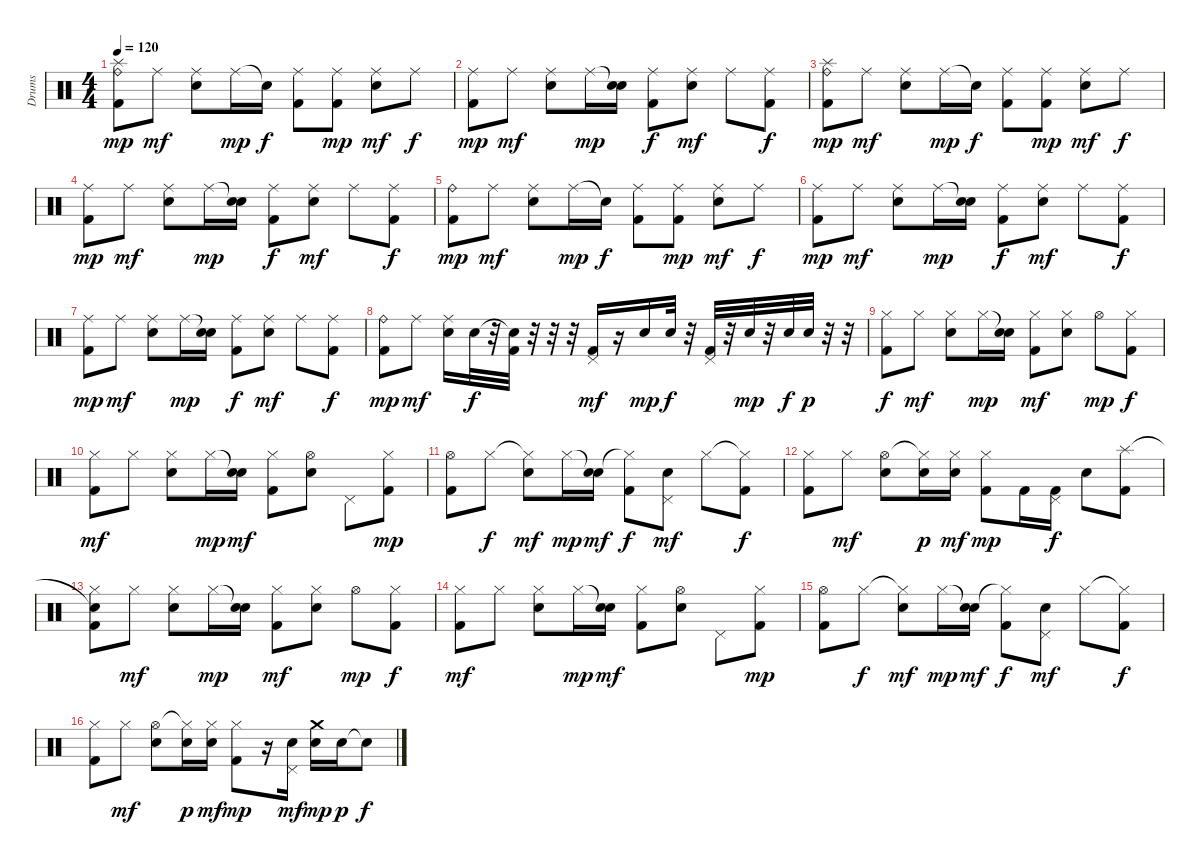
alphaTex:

\track ("Drums" "Drums") {instrument percussion}
\staff {score}
\articulation defaults
\ts (4 4)
\tempo 120
\clef neutral
\ks c
("Splash (hit)" "Ride (bell)" "Kick (hit) 2").8{dy mp} "Ride (middle)".8{dy mf} ("Ride (middle)" "Snare (hit) 2").8 "Ride (middle)".16{dy mp} "Snare (hit)"{t}.16{dy f} ("Ride (middle)" "Kick (hit) 2").8 ("Ride (middle)" "Kick (hit) 2").8{dy mp} ("Ride (middle)" "Snare (hit) 2").8{dy mf} "Ride (middle)".8{dy f} |
("Ride (middle)" "Kick (hit) 2").8{dy mp} "Ride (middle)".8{dy mf} ("Ride (middle)" "Snare (hit) 2").8 "Ride (middle)".16{dy mp} ("Snare (hit)"{t} "Snare (hit) 2").16 ("Ride (middle)" "Kick (hit) 2").8{dy f} ("Ride (middle)" "Snare (hit) 2").8{dy mf} "Ride (middle)".8 ("Ride (middle)" "Kick (hit) 2").8{dy f} |
("Splash (hit)" "Ride (bell)" "Kick (hit) 2").8{dy mp} "Ride (middle)".8{dy mf} ("Ride (middle)" "Snare (hit) 2").8 "Ride (middle)".16{dy mp} "Snare (hit)"{t}.16{dy f} ("Ride (middle)" "Kick (hit) 2").8 ("Ride (middle)" "Kick (hit) 2").8{dy mp} ("Ride (middle)" "Snare (hit) 2").8{dy mf} "Ride (middle)".8{dy f} |
("Ride (middle)" "Kick (hit) 2").8{dy mp} "Ride (middle)".8{dy mf} ("Ride (middle)" "Snare (hit) 2").8 "Ride (middle)".16{dy mp} ("Snare (hit)"{t} "Snare (hit) 2").16 ("Ride (middle)" "Kick (hit) 2").8{dy f} ("Ride (middle)" "Snare (hit) 2").8{dy mf} "Ride (middle)".8 ("Ride (middle)" "Kick (hit) 2").8{dy f} |
("Ride (bell)" "Kick (hit) 2").8{dy mp} "Ride (middle)".8{dy mf} ("Ride (middle)" "Snare (hit) 2").8 "Ride (middle)".16{dy mp} "Snare (hit)"{t}.16{dy f} ("Ride (middle)" "Kick (hit) 2").8 ("Ride (middle)" "Kick (hit) 2").8{dy mp} ("Ride (middle)" "Snare (hit) 2").8{dy mf} "Ride (middle)".8{dy f} |
("Ride (middle)" "Kick (hit) 2").8{dy mp} "Ride (middle)".8{dy mf} ("Ride (middle)" "Snare (hit) 2").8 "Ride (middle)".16{dy mp} ("Snare (hit)"{t} "Snare (hit) 2").16 ("Ride (middle)" "Kick (hit) 2").8{dy f} ("Ride (middle)" "Snare (hit) 2").8{dy mf} "Ride (middle)".8 ("Ride (middle)" "Kick (hit) 2").8{dy f} |
("Ride (middle)" "Kick (hit) 2").8{dy mp} "Ride (middle)".8{dy mf} ("Ride (middle)" "Snare (hit) 2").8 "Ride (middle)".16{dy mp} ("Snare (hit)"{t} "Snare (hit) 2").16 ("Ride (middle)" "Kick (hit) 2").8{dy f} ("Ride (middle)" "Snare (hit) 2").8{dy mf} "Ride (middle)".8 ("Ride (middle)" "Kick (hit) 2").8{dy f} |
("Ride (bell)" "Kick (hit) 2").8{dy mp} "Ride (middle)".8{dy mf} ("Ride (middle)" "Snare (hit) 2").16 "Snare (hit) 2".32{dy f} r.32 ("Snare (hit)"{t} "Kick (hit) 2").32 r.32 r.32 r.32 ("Pedal Hi-Hat (hit)" "Kick (hit) 2").16{dy mf} r.16 "Snare (hit) 2".16{dy mp} "Snare (hit) 2".32{dy f} r.32 ("Pedal Hi-Hat (hit)" "Kick (hit) 2").32 r.32 "Snare (hit) 2".32{dy mp} r.32 "Snare (hit) 2".32{dy f} "Snare (hit) 2".32{dy p} r.32 r.32 |
("Hi-Hat (closed)" "Kick (hit) 2").8{dy f} "Hi-Hat (closed)".8{dy mf} ("Hi-Hat (closed)" "Snare (hit) 2").8 "Hi-Hat (closed)".16{dy mp} ("Snare (hit)"{t} "Snare (hit) 2").16 ("Hi-Hat (closed)" "Kick (hit) 2").8{dy mf} ("Hi-Hat (closed)" "Snare (hit) 2").8 "Hi-Hat (open)".8{dy mp} ("Hi-Hat (closed)" "Kick (hit) 2").8{dy f} |
("Hi-Hat (closed)" "Kick (hit) 2").8{dy mf} "Hi-Hat (closed)".8 ("Hi-Hat (closed)" "Snare (hit) 2").8 "Hi-Hat (closed)".16{dy mp} ("Snare (hit)"{t} "Snare (hit) 2").16{dy mf} ("Hi-Hat (closed)" "Kick (hit) 2").8 ("Hi-Hat (open)" "Snare (hit) 2").8 "Pedal Hi-Hat (hit)".8 ("Hi-Hat (closed)" "Kick (hit) 2").8{dy mp} |
("Hi-Hat (open)" "Kick (hit) 2").8 "Hi-Hat (closed)".8{dy f} ("Hi-Hat (closed)"{t} "Snare (hit) 2").8{dy mf} "Hi-Hat (closed)".16{dy mp} ("Snare (hit)"{t} "Snare (hit) 2").16{dy mf} ("Hi-Hat (closed)"{t} "Kick (hit) 2").8{dy f} ("Pedal Hi-Hat (hit)" "Snare (hit) 2").8{dy mf} "Hi-Hat (closed)".8 ("Hi-Hat (closed)"{t} "Kick (hit) 2").8{dy f} |
("Hi-Hat (closed)" "Kick (hit) 2").8 "Hi-Hat (closed)".8{dy mf} ("Hi-Hat (open)" "Snare (hit) 2").8 ("Hi-Hat (closed)"{t} "Snare (hit) 2").16{dy p} ("Hi-Hat (closed)" "Snare (hit) 2").16{dy mf} ("Hi-Hat (closed)" "Kick (hit) 2").8{dy mp} "Kick (hit) 2".16 ("Pedal Hi-Hat (hit)" "Kick (hit) 2").16{dy f} "Snare (hit) 2".8 ("Splash (hit)" "Kick (hit) 2").8 |
("Snare (hit)"{t} "Hi-Hat (closed)" "Kick (hit) 2").8 "Hi-Hat (closed)".8{dy mf} ("Hi-Hat (closed)" "Snare (hit) 2").8 "Hi-Hat (closed)".16{dy mp} ("Snare (hit)"{t} "Snare (hit) 2").16 ("Hi-Hat (closed)" "Kick (hit) 2").8{dy mf} ("Hi-Hat (closed)" "Snare (hit) 2").8 "Hi-Hat (open)".8{dy mp} ("Hi-Hat (closed)" "Kick (hit) 2").8{dy f} |
("Hi-Hat (closed)" "Kick (hit) 2").8{dy mf} "Hi-Hat (closed)".8 ("Hi-Hat (closed)" "Snare (hit) 2").8 "Hi-Hat (closed)".16{dy mp} ("Snare (hit)"{t} "Snare (hit) 2").16{dy mf} ("Hi-Hat (closed)" "Kick (hit) 2").8 ("Hi-Hat (open)" "Snare (hit) 2").8 "Pedal Hi-Hat (hit)".8 ("Hi-Hat (closed)" "Kick (hit) 2").8{dy mp} |
("Hi-Hat (open)" "Kick (hit) 2").8 "Hi-Hat (closed)".8{dy f} ("Hi-Hat (closed)"{t} "Snare (hit) 2").8{dy mf} "Hi-Hat (closed)".16{dy mp} ("Snare (hit)"{t} "Snare (hit) 2").16{dy mf} ("Hi-Hat (closed)"{t} "Kick (hit) 2").8{dy f} ("Pedal Hi-Hat (hit)" "Snare (hit) 2").8{dy mf} "Hi-Hat (closed)".8 ("Hi-Hat (closed)"{t} "Kick (hit) 2").8{dy f} |
("Hi-Hat (closed)" "Kick (hit) 2").8 "Hi-Hat (closed)".8{dy mf} ("Hi-Hat (open)" "Snare (hit) 2").8 ("Hi-Hat (closed)"{t} "Snare (hit) 2").16{dy p} ("Hi-Hat (closed)" "Snare (hit) 2").16{dy mf} ("Hi-Hat (closed)" "Kick (hit) 2").8{dy mp} r.16 ("Pedal Hi-Hat (hit)" "Snare (hit) 2").16{dy mf} ("Crash medium (hit)" "Snare (hit) 2").16{dy mp} "Snare (hit) 2".16{dy p} "Snare (hit)"{t}.8{dy f}
